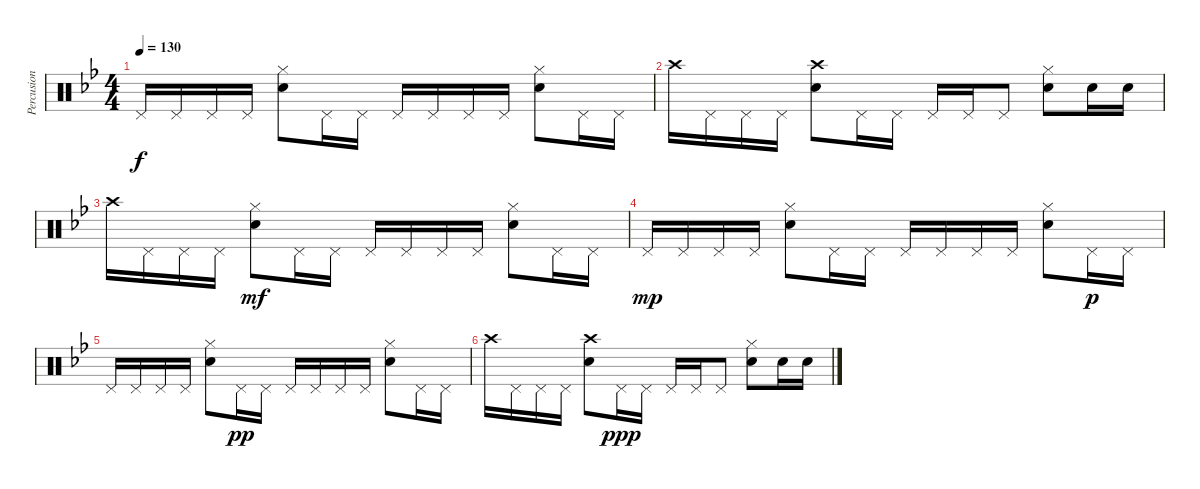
\track ("Percusion I" "Percusion ") {instrument percussion}
\staff {score}
\articulation defaults
\ts (4 4)
\tempo 130
\clef neutral
\ks gminor "Pedal Hi-Hat (hit)".16{dy f} "Pedal Hi-Hat (hit)".16 "Pedal Hi-Hat (hit)".16 "Pedal Hi-Hat (hit)".16
("Hi-Hat (closed)" "Snare (hit) 2").8 "Pedal Hi-Hat (hit)".16 "Pedal Hi-Hat (hit)".16 "Pedal Hi-Hat (hit)".16 "Pedal Hi-Hat (hit)".16 "Pedal Hi-Hat (hit)".16 "Pedal Hi-Hat (hit)".16 ("Snare (hit) 2" "Hi-Hat (closed)").8 "Pedal Hi-Hat (hit)".16 "Pedal Hi-Hat (hit)".16 |
"Crash high (hit)".16 "Pedal Hi-Hat (hit)".16 "Pedal Hi-Hat (hit)".16 "Pedal Hi-Hat (hit)".16 ("Snare (hit) 2" "Crash high (hit)").8 "Pedal Hi-Hat (hit)".16 "Pedal Hi-Hat (hit)".16 "Pedal Hi-Hat (hit)".16 "Pedal Hi-Hat (hit)".16 "Pedal Hi-Hat (hit)".8 ("Snare (hit) 2" "Hi-Hat (closed)").8 "Snare (hit) 2".16 "Snare (hit) 2".16 |
"Crash high (hit)".16 "Pedal Hi-Hat (hit)".16 "Pedal Hi-Hat (hit)".16 "Pedal Hi-Hat (hit)".16 ("Snare (hit) 2" "Hi-Hat (closed)").8{dy mf} "Pedal Hi-Hat (hit)".16 "Pedal Hi-Hat (hit)".16 "Pedal Hi-Hat (hit)".16 "Pedal Hi-Hat (hit)".16 "Pedal Hi-Hat (hit)".16 "Pedal Hi-Hat (hit)".16 ("Snare (hit) 2" "Hi-Hat (closed)").8 "Pedal Hi-Hat (hit)".16 "Pedal Hi-Hat (hit)".16 |
"Pedal Hi-Hat (hit)".16{dy mp} "Pedal Hi-Hat (hit)".16 "Pedal Hi-Hat (hit)".16 "Pedal Hi-Hat (hit)".16 ("Snare (hit) 2" "Hi-Hat (closed)").8 "Pedal Hi-Hat (hit)".16 "Pedal Hi-Hat (hit)".16 "Pedal Hi-Hat (hit)".16 "Pedal Hi-Hat (hit)".16 "Pedal Hi-Hat (hit)".16 "Pedal Hi-Hat (hit)".16 ("Snare (hit) 2" "Hi-Hat (closed)").8 "Pedal Hi-Hat (hit)".16{dy p} "Pedal Hi-Hat (hit)".16 |
"Pedal Hi-Hat (hit)".16 "Pedal Hi-Hat (hit)".16 "Pedal Hi-Hat (hit)".16 "Pedal Hi-Hat (hit)".16 ("Hi-Hat (closed)" "Snare (hit) 2").8 "Pedal Hi-Hat (hit)".16{dy pp} "Pedal Hi-Hat (hit)".16 "Pedal Hi-Hat (hit)".16 "Pedal Hi-Hat (hit)".16 "Pedal Hi-Hat (hit)".16 "Pedal Hi-Hat (hit)".16 ("Snare (hit) 2" "Hi-Hat (closed)").8 "Pedal Hi-Hat (hit)".16 "Pedal Hi-Hat (hit)".16 |
"Crash high (hit)".16 "Pedal Hi-Hat (hit)".16 "Pedal Hi-Hat (hit)".16 "Pedal Hi-Hat (hit)".16 ("Snare (hit) 2" "Crash high (hit)").8 "Pedal Hi-Hat (hit)".16{dy ppp} "Pedal Hi-Hat (hit)".16 "Pedal Hi-Hat (hit)".16 "Pedal Hi-Hat (hit)".16 "Pedal Hi-Hat (hit)".8 ("Snare (hit) 2" "Hi-Hat (closed)").8 "Snare (hit) 2".16 "Snare (hit) 2".16
